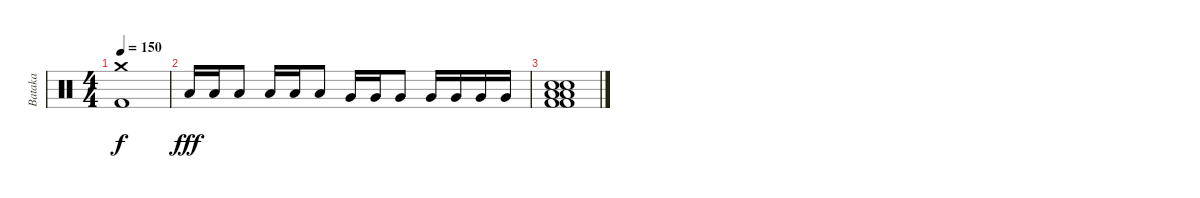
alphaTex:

\track ("Bataka" "Bataka") {instrument percussion}
\staff {score}
\articulation defaults
\ts (4 4)
\tempo 150
\clef neutral
\ks c
("Crash medium (hit)" "Kick (hit) 2").1{dy f} |
"Low Tom (hit)".16{dy fff} "Low Tom (hit)".16 "Low Tom (hit)".8 "Low Tom (hit)".16 "Low Tom (hit)".16 "Low Tom (hit)".8 "Very Low Tom (hit)".16 "Very Low Tom (hit)".16 "Very Low Tom (hit)".8 "Very Low Tom (hit)".16 "Very Low Tom (hit)".16 "Very Low Tom (hit)".16 "Very Low Tom (hit)".16 |
("Snare (hit) 2" "Snare (hit) 2" "Low Tom (hit)" "Low Tom (hit)" "Kick (hit) 2" "Kick (hit) 2").1
